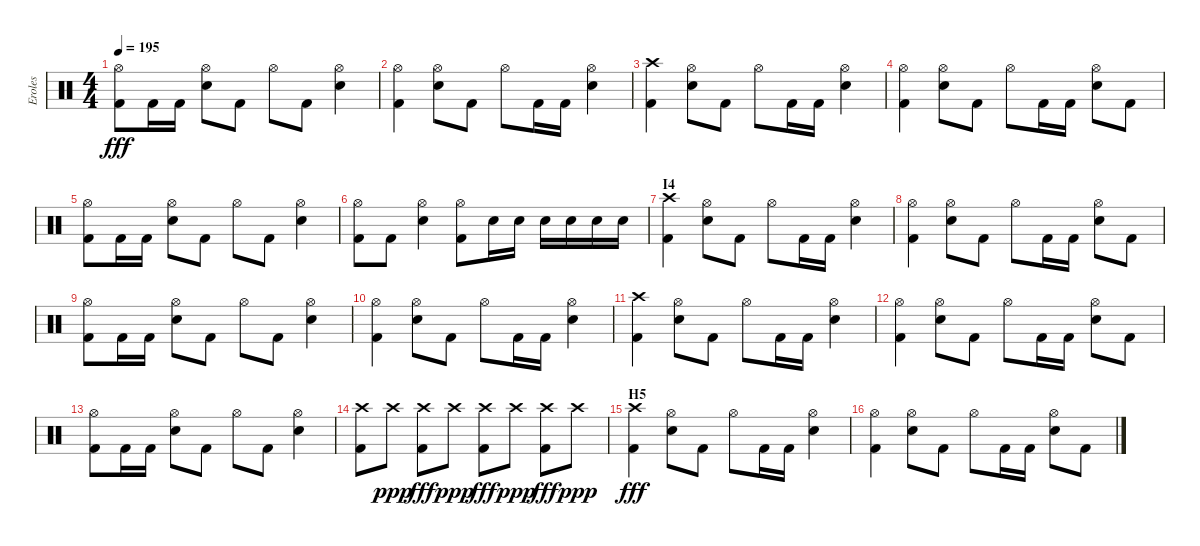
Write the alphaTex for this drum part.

\track ("Eroles" "Eroles") {instrument percussion}
\staff {score}
\articulation defaults
\ts (4 4)
\tempo 195
\clef neutral
\ks c
("Hi-Hat (open)" "Kick (hit) 2").8{dy fff} "Kick (hit) 2".16 "Kick (hit) 2".16 ("Hi-Hat (open)" "Snare (hit) 2").8 "Kick (hit) 2".8 "Hi-Hat (open)".8 "Kick (hit) 2".8 ("Hi-Hat (open)" "Snare (hit) 2").4 |
("Hi-Hat (open)" "Kick (hit) 2").4 ("Hi-Hat (open)" "Snare (hit) 2").8 "Kick (hit) 2".8 "Hi-Hat (open)".8 "Kick (hit) 2".16 "Kick (hit) 2".16 ("Hi-Hat (open)" "Snare (hit) 2").4 |
("Crash high (hit)" "Kick (hit) 2").4 ("Hi-Hat (open)" "Snare (hit) 2").8 "Kick (hit) 2".8 "Hi-Hat (open)".8 "Kick (hit) 2".16 "Kick (hit) 2".16 ("Hi-Hat (open)" "Snare (hit) 2").4 |
("Hi-Hat (open)" "Kick (hit) 2").4 ("Hi-Hat (open)" "Snare (hit) 2").8 "Kick (hit) 2".8 "Hi-Hat (open)".8 "Kick (hit) 2".16 "Kick (hit) 2".16 ("Hi-Hat (open)" "Snare (hit) 2").8 "Kick (hit) 2".8 |
("Hi-Hat (open)" "Kick (hit) 2").8 "Kick (hit) 2".16 "Kick (hit) 2".16 ("Hi-Hat (open)" "Snare (hit) 2").8 "Kick (hit) 2".8 "Hi-Hat (open)".8 "Kick (hit) 2".8 ("Hi-Hat (open)" "Snare (hit) 2").4 |
("Hi-Hat (open)" "Kick (hit) 2").8 "Kick (hit) 2".8 ("Hi-Hat (open)" "Snare (hit) 2").4 ("Hi-Hat (open)" "Kick (hit) 2").8 "Snare (hit) 2".16 "Snare (hit) 2".16 "Snare (hit) 2".16 "Snare (hit) 2".16 "Snare (hit) 2".16 "Snare (hit) 2".16 |
\section ("" "I4")
("Crash high (hit)" "Kick (hit) 2").4 ("Hi-Hat (open)" "Snare (hit) 2").8 "Kick (hit) 2".8 "Hi-Hat (open)".8 "Kick (hit) 2".16 "Kick (hit) 2".16 ("Hi-Hat (open)" "Snare (hit) 2").4 |
("Hi-Hat (open)" "Kick (hit) 2").4 ("Hi-Hat (open)" "Snare (hit) 2").8 "Kick (hit) 2".8 "Hi-Hat (open)".8 "Kick (hit) 2".16 "Kick (hit) 2".16 ("Hi-Hat (open)" "Snare (hit) 2").8 "Kick (hit) 2".8 |
("Hi-Hat (open)" "Kick (hit) 2").8 "Kick (hit) 2".16 "Kick (hit) 2".16 ("Hi-Hat (open)" "Snare (hit) 2").8 "Kick (hit) 2".8 "Hi-Hat (open)".8 "Kick (hit) 2".8 ("Hi-Hat (open)" "Snare (hit) 2").4 |
("Hi-Hat (open)" "Kick (hit) 2").4 ("Hi-Hat (open)" "Snare (hit) 2").8 "Kick (hit) 2".8 "Hi-Hat (open)".8 "Kick (hit) 2".16 "Kick (hit) 2".16 ("Hi-Hat (open)" "Snare (hit) 2").4 |
("Crash high (hit)" "Kick (hit) 2").4 ("Hi-Hat (open)" "Snare (hit) 2").8 "Kick (hit) 2".8 "Hi-Hat (open)".8 "Kick (hit) 2".16 "Kick (hit) 2".16 ("Hi-Hat (open)" "Snare (hit) 2").4 |
("Hi-Hat (open)" "Kick (hit) 2").4 ("Hi-Hat (open)" "Snare (hit) 2").8 "Kick (hit) 2".8 "Hi-Hat (open)".8 "Kick (hit) 2".16 "Kick (hit) 2".16 ("Hi-Hat (open)" "Snare (hit) 2").8 "Kick (hit) 2".8 |
("Hi-Hat (open)" "Kick (hit) 2").8 "Kick (hit) 2".16 "Kick (hit) 2".16 ("Hi-Hat (open)" "Snare (hit) 2").8 "Kick (hit) 2".8 "Hi-Hat (open)".8 "Kick (hit) 2".8 ("Hi-Hat (open)" "Snare (hit) 2").4 |
("Crash high (hit)" "Kick (hit) 2").8 "Crash high (hit)".8{dy ppp} ("Crash high (hit)" "Kick (hit) 2").8{dy fff} "Crash high (hit)".8{dy ppp} ("Crash high (hit)" "Kick (hit) 2").8{dy fff} "Crash high (hit)".8{dy ppp} ("Crash high (hit)" "Kick (hit) 2").8{dy fff} "Crash high (hit)".8{dy ppp} |
\section ("" "H5")
("Crash high (hit)" "Kick (hit) 2").4{dy fff} ("Hi-Hat (open)" "Snare (hit) 2").8 "Kick (hit) 2".8 "Hi-Hat (open)".8 "Kick (hit) 2".16 "Kick (hit) 2".16 ("Hi-Hat (open)" "Snare (hit) 2").4 |
("Hi-Hat (open)" "Kick (hit) 2").4 ("Hi-Hat (open)" "Snare (hit) 2").8 "Kick (hit) 2".8 "Hi-Hat (open)".8 "Kick (hit) 2".16 "Kick (hit) 2".16 ("Hi-Hat (open)" "Snare (hit) 2").8 "Kick (hit) 2".8
